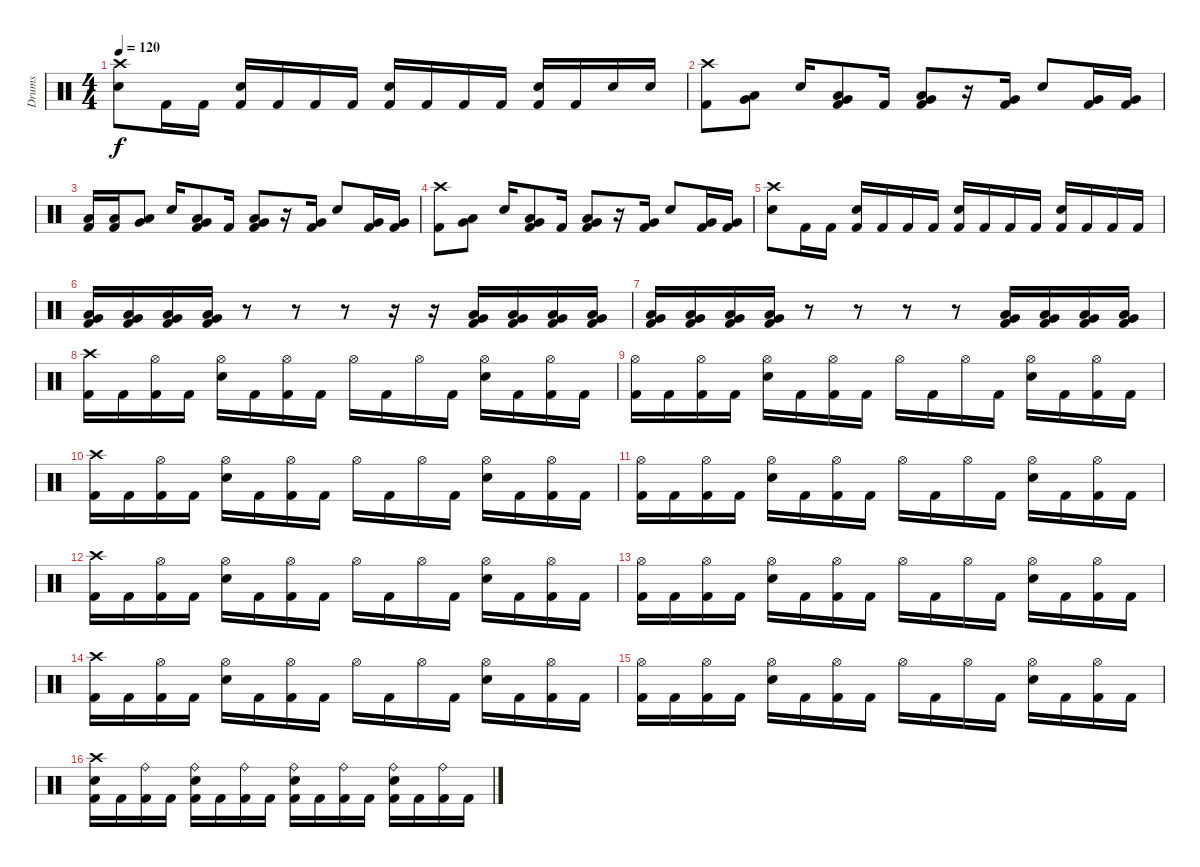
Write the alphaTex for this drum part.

\track ("Drums" "Drums") {instrument percussion}
\staff {score}
\articulation defaults
\ts (4 4)
\tempo 120
\clef neutral
\ks c
("Crash high (hit)" "Electric Snare (hit)").8{dy f} "Kick (hit) 2".16 "Kick (hit) 2".16 ("Electric Snare (hit)" "Kick (hit) 2").16 "Kick (hit) 2".16 "Kick (hit) 2".16 "Kick (hit) 2".16 ("Electric Snare (hit)" "Kick (hit) 2").16 "Kick (hit) 2".16 "Kick (hit) 2".16 "Kick (hit) 2".16 ("Electric Snare (hit)" "Kick (hit) 2").16 "Kick (hit) 2".16 "Electric Snare (hit)".16 "Electric Snare (hit)".16 |
("Crash high (hit)" "Kick (hit) 2").8 ("Very Low Tom (hit)" "Low Floor Tom (hit)").8 "Electric Snare (hit)".16 ("Low Floor Tom (hit)" "Very Low Tom (hit)" "Kick (hit) 2").8 "Kick (hit) 2".16 ("Low Floor Tom (hit)" "Very Low Tom (hit)" "Kick (hit) 2").8 r.16 ("Very Low Tom (hit)" "Kick (hit) 2").16 "Electric Snare (hit)".8 ("Very Low Tom (hit)" "Kick (hit) 2").16 ("Very Low Tom (hit)" "Kick (hit) 2").16 |
("Low Tom (hit)" "Kick (hit) 2").16 ("Low Tom (hit)" "Kick (hit) 2").16 ("Very Low Tom (hit)" "Low Floor Tom (hit)").8 "Electric Snare (hit)".16 ("Low Floor Tom (hit)" "Very Low Tom (hit)" "Kick (hit) 2").8 "Kick (hit) 2".16 ("Low Floor Tom (hit)" "Very Low Tom (hit)" "Kick (hit) 2").8 r.16 ("Very Low Tom (hit)" "Kick (hit) 2").16 "Electric Snare (hit)".8 ("Very Low Tom (hit)" "Kick (hit) 2").16 ("Very Low Tom (hit)" "Kick (hit) 2").16 |
("Crash high (hit)" "Kick (hit) 2").8 ("Very Low Tom (hit)" "Low Floor Tom (hit)").8 "Electric Snare (hit)".16 ("Low Floor Tom (hit)" "Very Low Tom (hit)" "Kick (hit) 2").8 "Kick (hit) 2".16 ("Low Floor Tom (hit)" "Very Low Tom (hit)" "Kick (hit) 2").8 r.16 ("Very Low Tom (hit)" "Kick (hit) 2").16 "Electric Snare (hit)".8 ("Very Low Tom (hit)" "Kick (hit) 2").16 ("Very Low Tom (hit)" "Kick (hit) 2").16 |
("Crash high (hit)" "Electric Snare (hit)").8 "Kick (hit) 2".16 "Kick (hit) 2".16 ("Electric Snare (hit)" "Kick (hit) 2").16 "Kick (hit) 2".16 "Kick (hit) 2".16 "Kick (hit) 2".16 ("Electric Snare (hit)" "Kick (hit) 2").16 "Kick (hit) 2".16 "Kick (hit) 2".16 "Kick (hit) 2".16 ("Electric Snare (hit)" "Kick (hit) 2").16 "Kick (hit) 2".16 "Kick (hit) 2".16 "Kick (hit) 2".16 |
("Kick (hit) 2" "Low Floor Tom (hit)" "Very Low Tom (hit)").16 ("Kick (hit) 2" "Low Floor Tom (hit)" "Very Low Tom (hit)").16 ("Kick (hit) 2" "Low Floor Tom (hit)" "Very Low Tom (hit)").16 ("Kick (hit) 2" "Low Floor Tom (hit)" "Very Low Tom (hit)").16 r.8 r.8 r.8 r.16 r.16 ("Very Low Tom (hit)" "Low Floor Tom (hit)" "Kick (hit) 2").16 ("Very Low Tom (hit)" "Low Floor Tom (hit)" "Kick (hit) 2").16 ("Very Low Tom (hit)" "Low Floor Tom (hit)" "Kick (hit) 2").16 ("Very Low Tom (hit)" "Low Floor Tom (hit)" "Kick (hit) 2").16 |
("Kick (hit) 2" "Low Floor Tom (hit)" "Very Low Tom (hit)").16 ("Kick (hit) 2" "Low Floor Tom (hit)" "Very Low Tom (hit)").16 ("Kick (hit) 2" "Low Floor Tom (hit)" "Very Low Tom (hit)").16 ("Kick (hit) 2" "Low Floor Tom (hit)" "Very Low Tom (hit)").16 r.8 r.8 r.8 r.8 ("Very Low Tom (hit)" "Low Floor Tom (hit)" "Kick (hit) 2").16 ("Very Low Tom (hit)" "Low Floor Tom (hit)" "Kick (hit) 2").16 ("Very Low Tom (hit)" "Low Floor Tom (hit)" "Kick (hit) 2").16 ("Very Low Tom (hit)" "Low Floor Tom (hit)" "Kick (hit) 2").16 |
("Crash high (hit)" "Kick (hit) 2").16 "Kick (hit) 2".16 ("Hi-Hat (open)" "Kick (hit) 2").16 "Kick (hit) 2".16 ("Hi-Hat (open)" "Electric Snare (hit)").16 "Kick (hit) 2".16 ("Hi-Hat (open)" "Kick (hit) 2").16 "Kick (hit) 2".16 "Hi-Hat (open)".16 "Kick (hit) 2".16 "Hi-Hat (open)".16 "Kick (hit) 2".16 ("Hi-Hat (open)" "Electric Snare (hit)").16 "Kick (hit) 2".16 ("Hi-Hat (open)" "Kick (hit) 2").16 "Kick (hit) 2".16 |
("Hi-Hat (open)" "Kick (hit) 2").16 "Kick (hit) 2".16 ("Hi-Hat (open)" "Kick (hit) 2").16 "Kick (hit) 2".16 ("Hi-Hat (open)" "Electric Snare (hit)").16 "Kick (hit) 2".16 ("Hi-Hat (open)" "Kick (hit) 2").16 "Kick (hit) 2".16 "Hi-Hat (open)".16 "Kick (hit) 2".16 "Hi-Hat (open)".16 "Kick (hit) 2".16 ("Hi-Hat (open)" "Electric Snare (hit)").16 "Kick (hit) 2".16 ("Hi-Hat (open)" "Kick (hit) 2").16 "Kick (hit) 2".16 |
("Crash high (hit)" "Kick (hit) 2").16 "Kick (hit) 2".16 ("Hi-Hat (open)" "Kick (hit) 2").16 "Kick (hit) 2".16 ("Hi-Hat (open)" "Electric Snare (hit)").16 "Kick (hit) 2".16 ("Hi-Hat (open)" "Kick (hit) 2").16 "Kick (hit) 2".16 "Hi-Hat (open)".16 "Kick (hit) 2".16 "Hi-Hat (open)".16 "Kick (hit) 2".16 ("Hi-Hat (open)" "Electric Snare (hit)").16 "Kick (hit) 2".16 ("Hi-Hat (open)" "Kick (hit) 2").16 "Kick (hit) 2".16 |
("Hi-Hat (open)" "Kick (hit) 2").16 "Kick (hit) 2".16 ("Hi-Hat (open)" "Kick (hit) 2").16 "Kick (hit) 2".16 ("Hi-Hat (open)" "Electric Snare (hit)").16 "Kick (hit) 2".16 ("Hi-Hat (open)" "Kick (hit) 2").16 "Kick (hit) 2".16 "Hi-Hat (open)".16 "Kick (hit) 2".16 "Hi-Hat (open)".16 "Kick (hit) 2".16 ("Hi-Hat (open)" "Electric Snare (hit)").16 "Kick (hit) 2".16 ("Hi-Hat (open)" "Kick (hit) 2").16 "Kick (hit) 2".16 |
("Crash high (hit)" "Kick (hit) 2").16 "Kick (hit) 2".16 ("Hi-Hat (open)" "Kick (hit) 2").16 "Kick (hit) 2".16 ("Hi-Hat (open)" "Electric Snare (hit)").16 "Kick (hit) 2".16 ("Hi-Hat (open)" "Kick (hit) 2").16 "Kick (hit) 2".16 "Hi-Hat (open)".16 "Kick (hit) 2".16 "Hi-Hat (open)".16 "Kick (hit) 2".16 ("Hi-Hat (open)" "Electric Snare (hit)").16 "Kick (hit) 2".16 ("Hi-Hat (open)" "Kick (hit) 2").16 "Kick (hit) 2".16 |
("Hi-Hat (open)" "Kick (hit) 2").16 "Kick (hit) 2".16 ("Hi-Hat (open)" "Kick (hit) 2").16 "Kick (hit) 2".16 ("Hi-Hat (open)" "Electric Snare (hit)").16 "Kick (hit) 2".16 ("Hi-Hat (open)" "Kick (hit) 2").16 "Kick (hit) 2".16 "Hi-Hat (open)".16 "Kick (hit) 2".16 "Hi-Hat (open)".16 "Kick (hit) 2".16 ("Hi-Hat (open)" "Electric Snare (hit)").16 "Kick (hit) 2".16 ("Hi-Hat (open)" "Kick (hit) 2").16 "Kick (hit) 2".16 |
("Crash high (hit)" "Kick (hit) 2").16 "Kick (hit) 2".16 ("Hi-Hat (open)" "Kick (hit) 2").16 "Kick (hit) 2".16 ("Hi-Hat (open)" "Electric Snare (hit)").16 "Kick (hit) 2".16 ("Hi-Hat (open)" "Kick (hit) 2").16 "Kick (hit) 2".16 "Hi-Hat (open)".16 "Kick (hit) 2".16 "Hi-Hat (open)".16 "Kick (hit) 2".16 ("Hi-Hat (open)" "Electric Snare (hit)").16 "Kick (hit) 2".16 ("Hi-Hat (open)" "Kick (hit) 2").16 "Kick (hit) 2".16 |
("Hi-Hat (open)" "Kick (hit) 2").16 "Kick (hit) 2".16 ("Hi-Hat (open)" "Kick (hit) 2").16 "Kick (hit) 2".16 ("Hi-Hat (open)" "Electric Snare (hit)").16 "Kick (hit) 2".16 ("Hi-Hat (open)" "Kick (hit) 2").16 "Kick (hit) 2".16 "Hi-Hat (open)".16 "Kick (hit) 2".16 "Hi-Hat (open)".16 "Kick (hit) 2".16 ("Hi-Hat (open)" "Electric Snare (hit)").16 "Kick (hit) 2".16 ("Hi-Hat (open)" "Kick (hit) 2").16 "Kick (hit) 2".16 |
("Crash high (hit)" "Electric Snare (hit)" "Kick (hit) 2").16 "Kick (hit) 2".16 ("Ride (bell)" "Kick (hit) 2").16 "Kick (hit) 2".16 ("Electric Snare (hit)" "Ride (bell)" "Kick (hit) 2").16 "Kick (hit) 2".16 ("Ride (bell)" "Kick (hit) 2").16 "Kick (hit) 2".16 ("Electric Snare (hit)" "Ride (bell)" "Kick (hit) 2").16 "Kick (hit) 2".16 ("Ride (bell)" "Kick (hit) 2").16 "Kick (hit) 2".16 ("Electric Snare (hit)" "Ride (bell)" "Kick (hit) 2").16 "Kick (hit) 2".16 ("Ride (bell)" "Kick (hit) 2").16 "Kick (hit) 2".16
